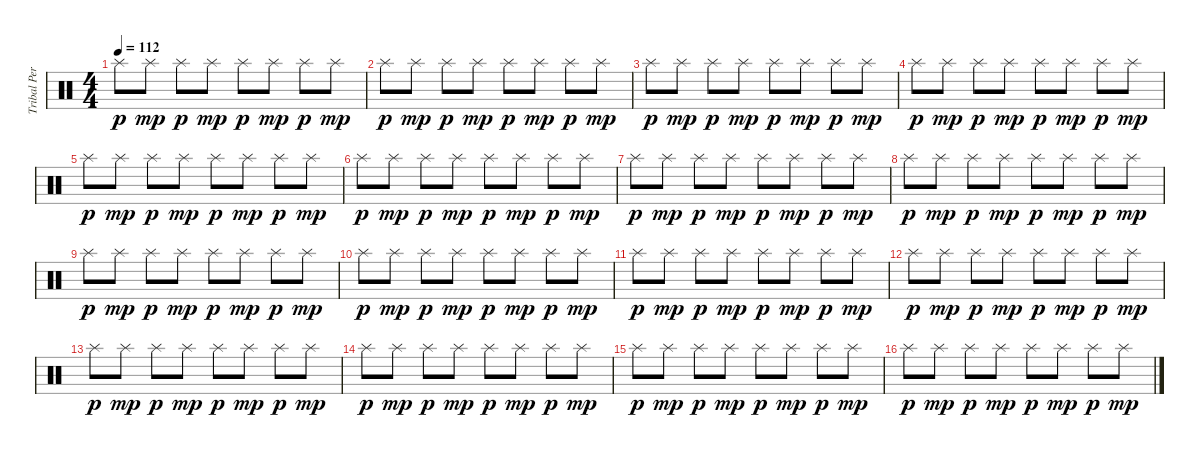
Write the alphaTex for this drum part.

\track ("Tribal Percussion" "Tribal Per") {instrument percussion}
\staff {score}
\articulation defaults
\ts (4 4)
\tempo 112
\clef neutral
\ks c "Splash (hit)".8{dy p} "Splash (hit)".8{dy mp} "Splash (hit)".8{dy p} "Splash (hit)".8{dy mp} "Splash (hit)".8{dy p} "Splash (hit)".8{dy mp} "Splash (hit)".8{dy p} "Splash (hit)".8{dy mp}
|
"Splash (hit)".8{dy p} "Splash (hit)".8{dy mp} "Splash (hit)".8{dy p} "Splash (hit)".8{dy mp} "Splash (hit)".8{dy p} "Splash (hit)".8{dy mp} "Splash (hit)".8{dy p} "Splash (hit)".8{dy mp} |
"Splash (hit)".8{dy p} "Splash (hit)".8{dy mp} "Splash (hit)".8{dy p} "Splash (hit)".8{dy mp} "Splash (hit)".8{dy p} "Splash (hit)".8{dy mp} "Splash (hit)".8{dy p} "Splash (hit)".8{dy mp} |
"Splash (hit)".8{dy p} "Splash (hit)".8{dy mp} "Splash (hit)".8{dy p} "Splash (hit)".8{dy mp} "Splash (hit)".8{dy p} "Splash (hit)".8{dy mp} "Splash (hit)".8{dy p} "Splash (hit)".8{dy mp} |
"Splash (hit)".8{dy p} "Splash (hit)".8{dy mp} "Splash (hit)".8{dy p} "Splash (hit)".8{dy mp} "Splash (hit)".8{dy p} "Splash (hit)".8{dy mp} "Splash (hit)".8{dy p} "Splash (hit)".8{dy mp} |
"Splash (hit)".8{dy p} "Splash (hit)".8{dy mp} "Splash (hit)".8{dy p} "Splash (hit)".8{dy mp} "Splash (hit)".8{dy p} "Splash (hit)".8{dy mp} "Splash (hit)".8{dy p} "Splash (hit)".8{dy mp} |
"Splash (hit)".8{dy p} "Splash (hit)".8{dy mp} "Splash (hit)".8{dy p} "Splash (hit)".8{dy mp} "Splash (hit)".8{dy p} "Splash (hit)".8{dy mp} "Splash (hit)".8{dy p} "Splash (hit)".8{dy mp} |
"Splash (hit)".8{dy p} "Splash (hit)".8{dy mp} "Splash (hit)".8{dy p} "Splash (hit)".8{dy mp} "Splash (hit)".8{dy p} "Splash (hit)".8{dy mp} "Splash (hit)".8{dy p} "Splash (hit)".8{dy mp} |
"Splash (hit)".8{dy p} "Splash (hit)".8{dy mp} "Splash (hit)".8{dy p} "Splash (hit)".8{dy mp} "Splash (hit)".8{dy p} "Splash (hit)".8{dy mp} "Splash (hit)".8{dy p} "Splash (hit)".8{dy mp} |
"Splash (hit)".8{dy p} "Splash (hit)".8{dy mp} "Splash (hit)".8{dy p} "Splash (hit)".8{dy mp} "Splash (hit)".8{dy p} "Splash (hit)".8{dy mp} "Splash (hit)".8{dy p} "Splash (hit)".8{dy mp} |
"Splash (hit)".8{dy p} "Splash (hit)".8{dy mp} "Splash (hit)".8{dy p} "Splash (hit)".8{dy mp} "Splash (hit)".8{dy p} "Splash (hit)".8{dy mp} "Splash (hit)".8{dy p} "Splash (hit)".8{dy mp} |
"Splash (hit)".8{dy p} "Splash (hit)".8{dy mp} "Splash (hit)".8{dy p} "Splash (hit)".8{dy mp} "Splash (hit)".8{dy p} "Splash (hit)".8{dy mp} "Splash (hit)".8{dy p} "Splash (hit)".8{dy mp} |
"Splash (hit)".8{dy p} "Splash (hit)".8{dy mp} "Splash (hit)".8{dy p} "Splash (hit)".8{dy mp} "Splash (hit)".8{dy p} "Splash (hit)".8{dy mp} "Splash (hit)".8{dy p} "Splash (hit)".8{dy mp} |
"Splash (hit)".8{dy p} "Splash (hit)".8{dy mp} "Splash (hit)".8{dy p} "Splash (hit)".8{dy mp} "Splash (hit)".8{dy p} "Splash (hit)".8{dy mp} "Splash (hit)".8{dy p} "Splash (hit)".8{dy mp} |
"Splash (hit)".8{dy p} "Splash (hit)".8{dy mp} "Splash (hit)".8{dy p} "Splash (hit)".8{dy mp} "Splash (hit)".8{dy p} "Splash (hit)".8{dy mp} "Splash (hit)".8{dy p} "Splash (hit)".8{dy mp} |
"Splash (hit)".8{dy p} "Splash (hit)".8{dy mp} "Splash (hit)".8{dy p} "Splash (hit)".8{dy mp} "Splash (hit)".8{dy p} "Splash (hit)".8{dy mp} "Splash (hit)".8{dy p} "Splash (hit)".8{dy mp}
